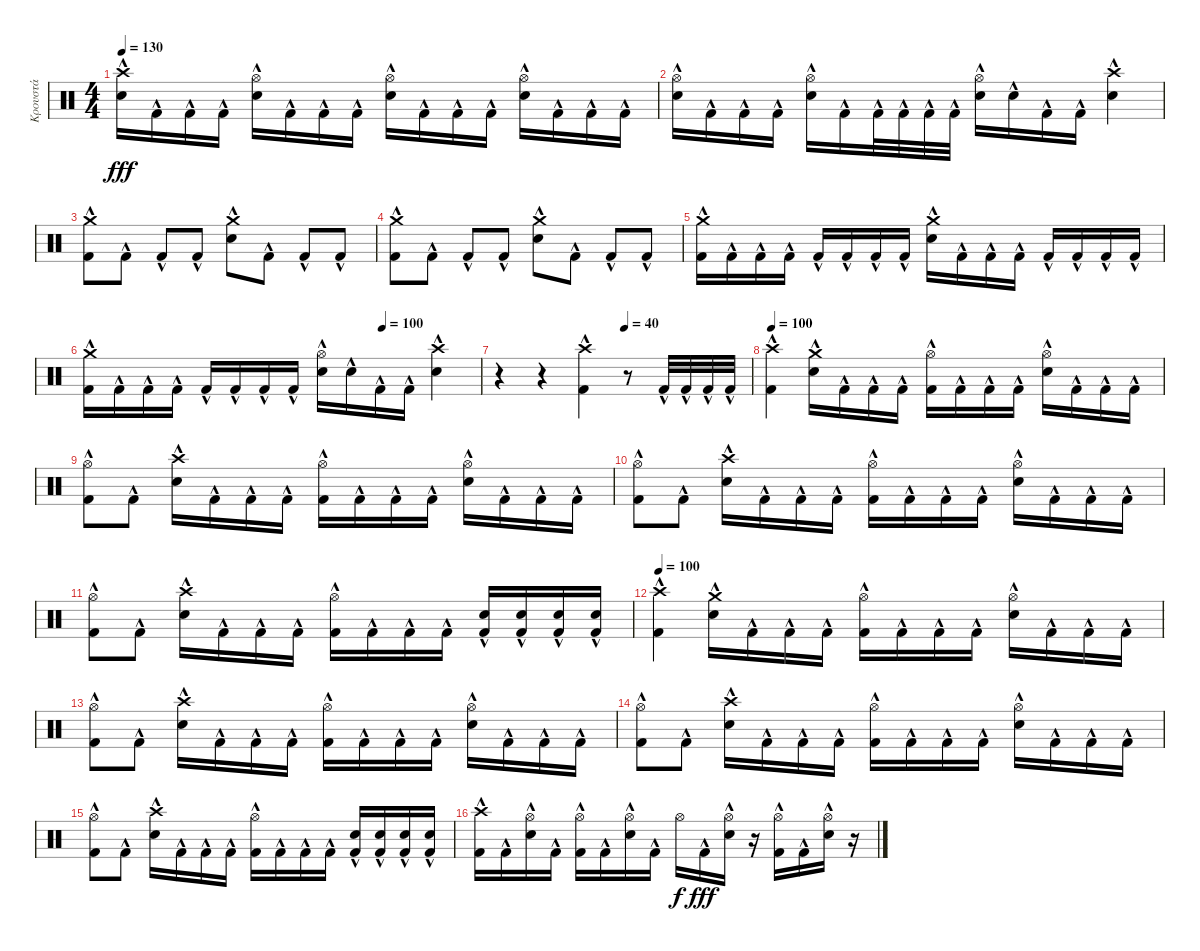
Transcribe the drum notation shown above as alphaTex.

\track ("Κρουστά" "Κρουστά") {instrument percussion}
\staff {score}
\articulation defaults
\ts (4 4)
\tempo 130
\clef neutral
\ks c
("Electric Snare (hit)"{hac} "Crash high (hit)").16{dy fff} "Kick (hit) 2"{hac}.16 "Kick (hit) 2"{hac}.16 "Kick (hit) 2"{hac}.16 ("Electric Snare (hit)"{hac} "Hi-Hat (open)").16 "Kick (hit) 2"{hac}.16 "Kick (hit) 2"{hac}.16 "Kick (hit) 2"{hac}.16 ("Electric Snare (hit)"{hac} "Hi-Hat (open)").16 "Kick (hit) 2"{hac}.16 "Kick (hit) 2"{hac}.16 "Kick (hit) 2"{hac}.16 ("Electric Snare (hit)"{hac} "Hi-Hat (open)").16 "Kick (hit) 2"{hac}.16 "Kick (hit) 2"{hac}.16 "Kick (hit) 2"{hac}.16 |
("Electric Snare (hit)"{hac} "Hi-Hat (open)").16 "Kick (hit) 2"{hac}.16 "Kick (hit) 2"{hac}.16 "Kick (hit) 2"{hac}.16 ("Electric Snare (hit)"{hac} "Hi-Hat (open)").16 "Kick (hit) 2"{hac}.16 "Kick (hit) 2"{hac}.32 "Kick (hit) 2"{hac}.32 "Kick (hit) 2"{hac}.32 "Kick (hit) 2"{hac}.32 ("Electric Snare (hit)"{hac} "Hi-Hat (open)").16 "Electric Snare (hit)"{hac}.16 "Kick (hit) 2"{hac}.16 "Kick (hit) 2"{hac}.16 ("Electric Snare (hit)"{hac} "Crash high (hit)").4 |
("Kick (hit) 2"{hac} "Crash medium (hit)").8 "Kick (hit) 2"{hac}.8 "Kick (hit) 2"{hac}.8 "Kick (hit) 2"{hac}.8 ("Electric Snare (hit)"{hac} "Crash medium (hit)").8 "Kick (hit) 2"{hac}.8 "Kick (hit) 2"{hac}.8 "Kick (hit) 2"{hac}.8 |
("Kick (hit) 2"{hac} "Crash medium (hit)").8 "Kick (hit) 2"{hac}.8 "Kick (hit) 2"{hac}.8 "Kick (hit) 2"{hac}.8 ("Electric Snare (hit)"{hac} "Crash medium (hit)").8 "Kick (hit) 2"{hac}.8 "Kick (hit) 2"{hac}.8 "Kick (hit) 2"{hac}.8 |
("Kick (hit) 2"{hac} "Crash medium (hit)").16 "Kick (hit) 2"{hac}.16 "Kick (hit) 2"{hac}.16 "Kick (hit) 2"{hac}.16 "Kick (hit) 2"{hac}.16 "Kick (hit) 2"{hac}.16 "Kick (hit) 2"{hac}.16 "Kick (hit) 2"{hac}.16 ("Electric Snare (hit)"{hac} "Crash medium (hit)").16 "Kick (hit) 2"{hac}.16 "Kick (hit) 2"{hac}.16 "Kick (hit) 2"{hac}.16 "Kick (hit) 2"{hac}.16 "Kick (hit) 2"{hac}.16 "Kick (hit) 2"{hac}.16 "Kick (hit) 2"{hac}.16 |
\tempo (100 0.75)
("Kick (hit) 2"{hac} "Crash medium (hit)").16 "Kick (hit) 2"{hac}.16 "Kick (hit) 2"{hac}.16 "Kick (hit) 2"{hac}.16 "Kick (hit) 2"{hac}.16 "Kick (hit) 2"{hac}.16 "Kick (hit) 2"{hac}.16 "Kick (hit) 2"{hac}.16 ("Electric Snare (hit)"{hac} "Hi-Hat (open)").16 "Electric Snare (hit)"{hac}.16 "Kick (hit) 2"{hac}.16 "Kick (hit) 2"{hac}.16 ("Electric Snare (hit)"{hac} "Crash high (hit)").4 |
\tempo (40 0.5)
r.4 r.4 ("Crash high (hit)" "Kick (hit) 2"{hac}).4 r.8 "Kick (hit) 2"{hac}.32 "Kick (hit) 2"{hac}.32 "Kick (hit) 2"{hac}.32 "Kick (hit) 2"{hac}.32 |
\tempo 100
("Kick (hit) 2"{hac} "Crash high (hit)").4 ("Electric Snare (hit)"{hac} "Crash medium (hit)").16 "Kick (hit) 2"{hac}.16 "Kick (hit) 2"{hac}.16 "Kick (hit) 2"{hac}.16 ("Kick (hit) 2"{hac} "Hi-Hat (open)").16 "Kick (hit) 2"{hac}.16 "Kick (hit) 2"{hac}.16 "Kick (hit) 2"{hac}.16 ("Electric Snare (hit)"{hac} "Hi-Hat (open)").16 "Kick (hit) 2"{hac}.16 "Kick (hit) 2"{hac}.16 "Kick (hit) 2"{hac}.16 |
("Kick (hit) 2"{hac} "Hi-Hat (open)").8 "Kick (hit) 2"{hac}.8 ("Electric Snare (hit)"{hac} "Crash high (hit)").16 "Kick (hit) 2"{hac}.16 "Kick (hit) 2"{hac}.16 "Kick (hit) 2"{hac}.16 ("Kick (hit) 2"{hac} "Hi-Hat (open)").16 "Kick (hit) 2"{hac}.16 "Kick (hit) 2"{hac}.16 "Kick (hit) 2"{hac}.16 ("Electric Snare (hit)"{hac} "Hi-Hat (open)").16 "Kick (hit) 2"{hac}.16 "Kick (hit) 2"{hac}.16 "Kick (hit) 2"{hac}.16 |
("Kick (hit) 2"{hac} "Hi-Hat (open)").8 "Kick (hit) 2"{hac}.8 ("Electric Snare (hit)"{hac} "Crash high (hit)").16 "Kick (hit) 2"{hac}.16 "Kick (hit) 2"{hac}.16 "Kick (hit) 2"{hac}.16 ("Kick (hit) 2"{hac} "Hi-Hat (open)").16 "Kick (hit) 2"{hac}.16 "Kick (hit) 2"{hac}.16 "Kick (hit) 2"{hac}.16 ("Electric Snare (hit)"{hac} "Hi-Hat (open)").16 "Kick (hit) 2"{hac}.16 "Kick (hit) 2"{hac}.16 "Kick (hit) 2"{hac}.16 |
("Kick (hit) 2"{hac} "Hi-Hat (open)").8 "Kick (hit) 2"{hac}.8 ("Electric Snare (hit)"{hac} "Crash high (hit)").16 "Kick (hit) 2"{hac}.16 "Kick (hit) 2"{hac}.16 "Kick (hit) 2"{hac}.16 ("Kick (hit) 2"{hac} "Hi-Hat (open)").16 "Kick (hit) 2"{hac}.16 "Kick (hit) 2"{hac}.16 "Kick (hit) 2"{hac}.16 ("Electric Snare (hit)"{hac} "Kick (hit) 2"{hac}).16 ("Kick (hit) 2"{hac} "Electric Snare (hit)"{hac}).16 ("Kick (hit) 2"{hac} "Electric Snare (hit)"{hac}).16 ("Kick (hit) 2"{hac} "Electric Snare (hit)"{hac}).16 |
\tempo 100
("Kick (hit) 2"{hac} "Crash high (hit)").4 ("Electric Snare (hit)"{hac} "Crash medium (hit)").16 "Kick (hit) 2"{hac}.16 "Kick (hit) 2"{hac}.16 "Kick (hit) 2"{hac}.16 ("Kick (hit) 2"{hac} "Hi-Hat (open)").16 "Kick (hit) 2"{hac}.16 "Kick (hit) 2"{hac}.16 "Kick (hit) 2"{hac}.16 ("Electric Snare (hit)"{hac} "Hi-Hat (open)").16 "Kick (hit) 2"{hac}.16 "Kick (hit) 2"{hac}.16 "Kick (hit) 2"{hac}.16 |
("Kick (hit) 2"{hac} "Hi-Hat (open)").8 "Kick (hit) 2"{hac}.8 ("Electric Snare (hit)"{hac} "Crash high (hit)").16 "Kick (hit) 2"{hac}.16 "Kick (hit) 2"{hac}.16 "Kick (hit) 2"{hac}.16 ("Kick (hit) 2"{hac} "Hi-Hat (open)").16 "Kick (hit) 2"{hac}.16 "Kick (hit) 2"{hac}.16 "Kick (hit) 2"{hac}.16 ("Electric Snare (hit)"{hac} "Hi-Hat (open)").16 "Kick (hit) 2"{hac}.16 "Kick (hit) 2"{hac}.16 "Kick (hit) 2"{hac}.16 |
("Kick (hit) 2"{hac} "Hi-Hat (open)").8 "Kick (hit) 2"{hac}.8 ("Electric Snare (hit)"{hac} "Crash high (hit)").16 "Kick (hit) 2"{hac}.16 "Kick (hit) 2"{hac}.16 "Kick (hit) 2"{hac}.16 ("Kick (hit) 2"{hac} "Hi-Hat (open)").16 "Kick (hit) 2"{hac}.16 "Kick (hit) 2"{hac}.16 "Kick (hit) 2"{hac}.16 ("Electric Snare (hit)"{hac} "Hi-Hat (open)").16 "Kick (hit) 2"{hac}.16 "Kick (hit) 2"{hac}.16 "Kick (hit) 2"{hac}.16 |
("Kick (hit) 2"{hac} "Hi-Hat (open)").8 "Kick (hit) 2"{hac}.8 ("Electric Snare (hit)"{hac} "Crash high (hit)").16 "Kick (hit) 2"{hac}.16 "Kick (hit) 2"{hac}.16 "Kick (hit) 2"{hac}.16 ("Kick (hit) 2"{hac} "Hi-Hat (open)").16 "Kick (hit) 2"{hac}.16 "Kick (hit) 2"{hac}.16 "Kick (hit) 2"{hac}.16 ("Electric Snare (hit)"{hac} "Kick (hit) 2"{hac}).16 ("Kick (hit) 2"{hac} "Electric Snare (hit)"{hac}).16 ("Kick (hit) 2"{hac} "Electric Snare (hit)"{hac}).16 ("Kick (hit) 2"{hac} "Electric Snare (hit)"{hac}).16 |
("Kick (hit) 2"{hac} "Crash high (hit)").16 "Kick (hit) 2"{hac}.16 ("Electric Snare (hit)"{hac} "Hi-Hat (open)").16 "Kick (hit) 2"{hac}.16 ("Kick (hit) 2"{hac} "Hi-Hat (open)").16 "Kick (hit) 2"{hac}.16 ("Electric Snare (hit)"{hac} "Hi-Hat (open)").16 "Kick (hit) 2"{hac}.16 "Hi-Hat (open)".16{dy f} "Kick (hit) 2"{hac}.16{dy fff} ("Electric Snare (hit)"{hac} "Hi-Hat (open)").16 r.16 ("Kick (hit) 2"{hac} "Hi-Hat (open)").16 "Kick (hit) 2"{hac}.16 ("Electric Snare (hit)"{hac} "Hi-Hat (open)").16 r.16
